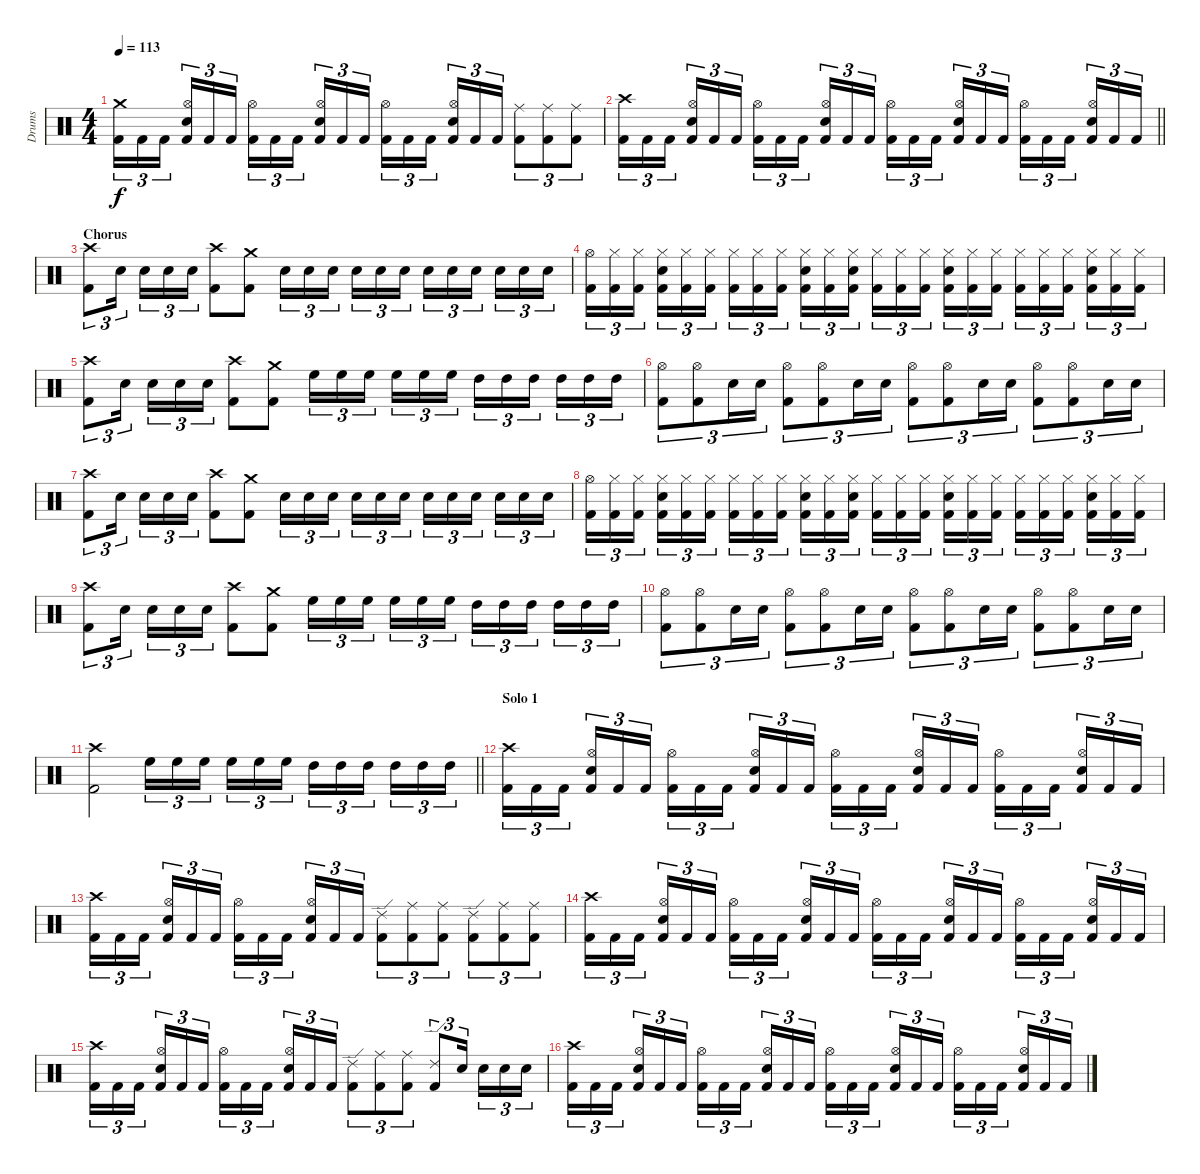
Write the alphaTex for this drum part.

\track ("Drums" "Drums") {instrument percussion}
\staff {score}
\articulation defaults
\ts (4 4)
\tempo 113
\clef neutral
\ks c
("Crash medium (hit)" "Kick (hit) 2").16{tu (3 2) dy f} "Kick (hit) 2".16{tu (3 2)} "Kick (hit) 2".16{tu (3 2) beam splitsecondary} ("Hi-Hat (open)" "Snare (hit) 2" "Kick (hit) 2").16{tu (3 2)} "Kick (hit) 2".16{tu (3 2)} "Kick (hit) 2".16{tu (3 2)} ("Hi-Hat (open)" "Kick (hit) 2").16{tu (3 2)} "Kick (hit) 2".16{tu (3 2)} "Kick (hit) 2".16{tu (3 2) beam splitsecondary} ("Hi-Hat (open)" "Snare (hit) 2" "Kick (hit) 2").16{tu (3 2)} "Kick (hit) 2".16{tu (3 2)} "Kick (hit) 2".16{tu (3 2)} ("Hi-Hat (open)" "Kick (hit) 2").16{tu (3 2)} "Kick (hit) 2".16{tu (3 2)} "Kick (hit) 2".16{tu (3 2) beam splitsecondary} ("Hi-Hat (open)" "Snare (hit) 2" "Kick (hit) 2").16{tu (3 2)} "Kick (hit) 2".16{tu (3 2)} "Kick (hit) 2".16{tu (3 2)} ("Ride (middle)" "Kick (hit) 2").8{tu (3 2)} ("Ride (middle)" "Kick (hit) 2").8{tu (3 2)} ("Ride (middle)" "Kick (hit) 2").8{tu (3 2)} |
\barLineRight lightlight
("Crash high (hit)" "Kick (hit) 2").16{tu (3 2)} "Kick (hit) 2".16{tu (3 2)} "Kick (hit) 2".16{tu (3 2) beam splitsecondary} ("Hi-Hat (open)" "Snare (hit) 2" "Kick (hit) 2").16{tu (3 2)} "Kick (hit) 2".16{tu (3 2)} "Kick (hit) 2".16{tu (3 2)} ("Hi-Hat (open)" "Kick (hit) 2").16{tu (3 2)} "Kick (hit) 2".16{tu (3 2)} "Kick (hit) 2".16{tu (3 2) beam splitsecondary} ("Hi-Hat (open)" "Snare (hit) 2" "Kick (hit) 2").16{tu (3 2)} "Kick (hit) 2".16{tu (3 2)} "Kick (hit) 2".16{tu (3 2)} ("Hi-Hat (open)" "Kick (hit) 2").16{tu (3 2)} "Kick (hit) 2".16{tu (3 2)} "Kick (hit) 2".16{tu (3 2) beam splitsecondary} ("Hi-Hat (open)" "Snare (hit) 2" "Kick (hit) 2").16{tu (3 2)} "Kick (hit) 2".16{tu (3 2)} "Kick (hit) 2".16{tu (3 2)} ("Hi-Hat (open)" "Kick (hit) 2").16{tu (3 2)} "Kick (hit) 2".16{tu (3 2)} "Kick (hit) 2".16{tu (3 2) beam splitsecondary} ("Hi-Hat (open)" "Snare (hit) 2" "Kick (hit) 2").16{tu (3 2)} "Kick (hit) 2".16{tu (3 2)} "Kick (hit) 2".16{tu (3 2)} |
\section ("" "Chorus")
("Crash high (hit)" "Kick (hit) 2").8{tu (3 2)} "Snare (hit) 2".16{tu (3 2) beam splitsecondary} "Snare (hit) 2".16{tu (3 2)} "Snare (hit) 2".16{tu (3 2)} "Snare (hit) 2".16{tu (3 2)} ("Crash high (hit)" "Kick (hit) 2").8 ("Crash medium (hit)" "Kick (hit) 2").8 "Snare (hit) 2".16{tu (3 2)} "Snare (hit) 2".16{tu (3 2)} "Snare (hit) 2".16{tu (3 2) beam splitsecondary} "Snare (hit) 2".16{tu (3 2)} "Snare (hit) 2".16{tu (3 2)} "Snare (hit) 2".16{tu (3 2)} "Snare (hit) 2".16{tu (3 2)} "Snare (hit) 2".16{tu (3 2)} "Snare (hit) 2".16{tu (3 2) beam splitsecondary} "Snare (hit) 2".16{tu (3 2)} "Snare (hit) 2".16{tu (3 2)} "Snare (hit) 2".16{tu (3 2)} |
("Hi-Hat (open)" "Kick (hit) 2").16{tu (3 2)} ("Hi-Hat (closed)" "Kick (hit) 2").16{tu (3 2)} ("Hi-Hat (closed)" "Kick (hit) 2").16{tu (3 2) beam splitsecondary} ("Snare (hit) 2" "Hi-Hat (closed)" "Kick (hit) 2").16{tu (3 2)} ("Hi-Hat (closed)" "Kick (hit) 2").16{tu (3 2)} ("Hi-Hat (closed)" "Kick (hit) 2").16{tu (3 2)} ("Hi-Hat (closed)" "Kick (hit) 2").16{tu (3 2)} ("Hi-Hat (closed)" "Kick (hit) 2").16{tu (3 2)} ("Hi-Hat (closed)" "Kick (hit) 2").16{tu (3 2) beam splitsecondary} ("Snare (hit) 2" "Hi-Hat (closed)" "Kick (hit) 2").16{tu (3 2)} ("Hi-Hat (closed)" "Kick (hit) 2").16{tu (3 2)} ("Snare (hit) 2" "Hi-Hat (closed)" "Kick (hit) 2").16{tu (3 2)} ("Hi-Hat (closed)" "Kick (hit) 2").16{tu (3 2)} ("Hi-Hat (closed)" "Kick (hit) 2").16{tu (3 2)} ("Hi-Hat (closed)" "Kick (hit) 2").16{tu (3 2) beam splitsecondary} ("Snare (hit) 2" "Hi-Hat (closed)" "Kick (hit) 2").16{tu (3 2)} ("Hi-Hat (closed)" "Kick (hit) 2").16{tu (3 2)} ("Hi-Hat (closed)" "Kick (hit) 2").16{tu (3 2)} ("Hi-Hat (closed)" "Kick (hit) 2").16{tu (3 2)} ("Hi-Hat (closed)" "Kick (hit) 2").16{tu (3 2)} ("Hi-Hat (closed)" "Kick (hit) 2").16{tu (3 2) beam splitsecondary} ("Snare (hit) 2" "Hi-Hat (closed)" "Kick (hit) 2").16{tu (3 2)} ("Hi-Hat (closed)" "Kick (hit) 2").16{tu (3 2)} ("Hi-Hat (closed)" "Kick (hit) 2").16{tu (3 2)} |
("Crash high (hit)" "Kick (hit) 2").8{tu (3 2)} "Snare (hit) 2".16{tu (3 2) beam splitsecondary} "Snare (hit) 2".16{tu (3 2)} "Snare (hit) 2".16{tu (3 2)} "Snare (hit) 2".16{tu (3 2)} ("Crash high (hit)" "Kick (hit) 2").8 ("Crash medium (hit)" "Kick (hit) 2").8 "High Floor Tom (hit)".16{tu (3 2)} "High Floor Tom (hit)".16{tu (3 2)} "High Floor Tom (hit)".16{tu (3 2) beam splitsecondary} "High Floor Tom (hit)".16{tu (3 2)} "High Floor Tom (hit)".16{tu (3 2)} "High Floor Tom (hit)".16{tu (3 2)} "High Tom (hit)".16{tu (3 2)} "High Tom (hit)".16{tu (3 2)} "High Tom (hit)".16{tu (3 2) beam splitsecondary} "High Tom (hit)".16{tu (3 2)} "High Tom (hit)".16{tu (3 2)} "High Tom (hit)".16{tu (3 2)} |
("Hi-Hat (open)" "Kick (hit) 2").8{tu (3 2)} ("Hi-Hat (open)" "Kick (hit) 2").8{tu (3 2)} "Snare (hit) 2".16{tu (3 2)} "Snare (hit) 2".16{tu (3 2)} ("Hi-Hat (open)" "Kick (hit) 2").8{tu (3 2)} ("Hi-Hat (open)" "Kick (hit) 2").8{tu (3 2)} "Snare (hit) 2".16{tu (3 2)} "Snare (hit) 2".16{tu (3 2)} ("Hi-Hat (open)" "Kick (hit) 2").8{tu (3 2)} ("Hi-Hat (open)" "Kick (hit) 2").8{tu (3 2)} "Snare (hit) 2".16{tu (3 2)} "Snare (hit) 2".16{tu (3 2)} ("Hi-Hat (open)" "Kick (hit) 2").8{tu (3 2)} ("Hi-Hat (open)" "Kick (hit) 2").8{tu (3 2)} "Snare (hit) 2".16{tu (3 2)} "Snare (hit) 2".16{tu (3 2)} |
("Crash high (hit)" "Kick (hit) 2").8{tu (3 2)} "Snare (hit) 2".16{tu (3 2) beam splitsecondary} "Snare (hit) 2".16{tu (3 2)} "Snare (hit) 2".16{tu (3 2)} "Snare (hit) 2".16{tu (3 2)} ("Crash high (hit)" "Kick (hit) 2").8 ("Crash medium (hit)" "Kick (hit) 2").8 "Snare (hit) 2".16{tu (3 2)} "Snare (hit) 2".16{tu (3 2)} "Snare (hit) 2".16{tu (3 2) beam splitsecondary} "Snare (hit) 2".16{tu (3 2)} "Snare (hit) 2".16{tu (3 2)} "Snare (hit) 2".16{tu (3 2)} "Snare (hit) 2".16{tu (3 2)} "Snare (hit) 2".16{tu (3 2)} "Snare (hit) 2".16{tu (3 2) beam splitsecondary} "Snare (hit) 2".16{tu (3 2)} "Snare (hit) 2".16{tu (3 2)} "Snare (hit) 2".16{tu (3 2)} |
("Hi-Hat (open)" "Kick (hit) 2").16{tu (3 2)} ("Hi-Hat (closed)" "Kick (hit) 2").16{tu (3 2)} ("Hi-Hat (closed)" "Kick (hit) 2").16{tu (3 2) beam splitsecondary} ("Snare (hit) 2" "Hi-Hat (closed)" "Kick (hit) 2").16{tu (3 2)} ("Hi-Hat (closed)" "Kick (hit) 2").16{tu (3 2)} ("Hi-Hat (closed)" "Kick (hit) 2").16{tu (3 2)} ("Hi-Hat (closed)" "Kick (hit) 2").16{tu (3 2)} ("Hi-Hat (closed)" "Kick (hit) 2").16{tu (3 2)} ("Hi-Hat (closed)" "Kick (hit) 2").16{tu (3 2) beam splitsecondary} ("Snare (hit) 2" "Hi-Hat (closed)" "Kick (hit) 2").16{tu (3 2)} ("Hi-Hat (closed)" "Kick (hit) 2").16{tu (3 2)} ("Snare (hit) 2" "Hi-Hat (closed)" "Kick (hit) 2").16{tu (3 2)} ("Hi-Hat (closed)" "Kick (hit) 2").16{tu (3 2)} ("Hi-Hat (closed)" "Kick (hit) 2").16{tu (3 2)} ("Hi-Hat (closed)" "Kick (hit) 2").16{tu (3 2) beam splitsecondary} ("Snare (hit) 2" "Hi-Hat (closed)" "Kick (hit) 2").16{tu (3 2)} ("Hi-Hat (closed)" "Kick (hit) 2").16{tu (3 2)} ("Hi-Hat (closed)" "Kick (hit) 2").16{tu (3 2)} ("Hi-Hat (closed)" "Kick (hit) 2").16{tu (3 2)} ("Hi-Hat (closed)" "Kick (hit) 2").16{tu (3 2)} ("Hi-Hat (closed)" "Kick (hit) 2").16{tu (3 2) beam splitsecondary} ("Snare (hit) 2" "Hi-Hat (closed)" "Kick (hit) 2").16{tu (3 2)} ("Hi-Hat (closed)" "Kick (hit) 2").16{tu (3 2)} ("Hi-Hat (closed)" "Kick (hit) 2").16{tu (3 2)} |
("Crash high (hit)" "Kick (hit) 2").8{tu (3 2)} "Snare (hit) 2".16{tu (3 2) beam splitsecondary} "Snare (hit) 2".16{tu (3 2)} "Snare (hit) 2".16{tu (3 2)} "Snare (hit) 2".16{tu (3 2)} ("Crash high (hit)" "Kick (hit) 2").8 ("Crash medium (hit)" "Kick (hit) 2").8 "High Floor Tom (hit)".16{tu (3 2)} "High Floor Tom (hit)".16{tu (3 2)} "High Floor Tom (hit)".16{tu (3 2) beam splitsecondary} "High Floor Tom (hit)".16{tu (3 2)} "High Floor Tom (hit)".16{tu (3 2)} "High Floor Tom (hit)".16{tu (3 2)} "High Tom (hit)".16{tu (3 2)} "High Tom (hit)".16{tu (3 2)} "High Tom (hit)".16{tu (3 2) beam splitsecondary} "High Tom (hit)".16{tu (3 2)} "High Tom (hit)".16{tu (3 2)} "High Tom (hit)".16{tu (3 2)} |
("Hi-Hat (open)" "Kick (hit) 2").8{tu (3 2)} ("Hi-Hat (open)" "Kick (hit) 2").8{tu (3 2)} "Snare (hit) 2".16{tu (3 2)} "Snare (hit) 2".16{tu (3 2)} ("Hi-Hat (open)" "Kick (hit) 2").8{tu (3 2)} ("Hi-Hat (open)" "Kick (hit) 2").8{tu (3 2)} "Snare (hit) 2".16{tu (3 2)} "Snare (hit) 2".16{tu (3 2)} ("Hi-Hat (open)" "Kick (hit) 2").8{tu (3 2)} ("Hi-Hat (open)" "Kick (hit) 2").8{tu (3 2)} "Snare (hit) 2".16{tu (3 2)} "Snare (hit) 2".16{tu (3 2)} ("Hi-Hat (open)" "Kick (hit) 2").8{tu (3 2)} ("Hi-Hat (open)" "Kick (hit) 2").8{tu (3 2)} "Snare (hit) 2".16{tu (3 2)} "Snare (hit) 2".16{tu (3 2)} |
\barLineRight lightlight
("Crash high (hit)" "Kick (hit) 2").2 "High Floor Tom (hit)".16{tu (3 2)} "High Floor Tom (hit)".16{tu (3 2)} "High Floor Tom (hit)".16{tu (3 2) beam splitsecondary} "High Floor Tom (hit)".16{tu (3 2)} "High Floor Tom (hit)".16{tu (3 2)} "High Floor Tom (hit)".16{tu (3 2)} "High Tom (hit)".16{tu (3 2)} "High Tom (hit)".16{tu (3 2)} "High Tom (hit)".16{tu (3 2) beam splitsecondary} "High Tom (hit)".16{tu (3 2)} "High Tom (hit)".16{tu (3 2)} "High Tom (hit)".16{tu (3 2)} |
\section ("" "Solo 1")
("Crash high (hit)" "Kick (hit) 2").16{tu (3 2)} "Kick (hit) 2".16{tu (3 2)} "Kick (hit) 2".16{tu (3 2) beam splitsecondary} ("Hi-Hat (open)" "Snare (hit) 2" "Kick (hit) 2").16{tu (3 2)} "Kick (hit) 2".16{tu (3 2)} "Kick (hit) 2".16{tu (3 2)} ("Hi-Hat (open)" "Kick (hit) 2").16{tu (3 2)} "Kick (hit) 2".16{tu (3 2)} "Kick (hit) 2".16{tu (3 2) beam splitsecondary} ("Hi-Hat (open)" "Snare (hit) 2" "Kick (hit) 2").16{tu (3 2)} "Kick (hit) 2".16{tu (3 2)} "Kick (hit) 2".16{tu (3 2)} ("Hi-Hat (open)" "Kick (hit) 2").16{tu (3 2)} "Kick (hit) 2".16{tu (3 2)} "Kick (hit) 2".16{tu (3 2) beam splitsecondary} ("Hi-Hat (open)" "Snare (hit) 2" "Kick (hit) 2").16{tu (3 2)} "Kick (hit) 2".16{tu (3 2)} "Kick (hit) 2".16{tu (3 2)} ("Hi-Hat (open)" "Kick (hit) 2").16{tu (3 2)} "Kick (hit) 2".16{tu (3 2)} "Kick (hit) 2".16{tu (3 2) beam splitsecondary} ("Hi-Hat (open)" "Snare (hit) 2" "Kick (hit) 2").16{tu (3 2)} "Kick (hit) 2".16{tu (3 2)} "Kick (hit) 2".16{tu (3 2)} |
("Crash high (hit)" "Kick (hit) 2").16{tu (3 2)} "Kick (hit) 2".16{tu (3 2)} "Kick (hit) 2".16{tu (3 2) beam splitsecondary} ("Hi-Hat (open)" "Snare (hit) 2" "Kick (hit) 2").16{tu (3 2)} "Kick (hit) 2".16{tu (3 2)} "Kick (hit) 2".16{tu (3 2)} ("Hi-Hat (open)" "Kick (hit) 2").16{tu (3 2)} "Kick (hit) 2".16{tu (3 2)} "Kick (hit) 2".16{tu (3 2) beam splitsecondary} ("Hi-Hat (open)" "Snare (hit) 2" "Kick (hit) 2").16{tu (3 2)} "Kick (hit) 2".16{tu (3 2)} "Kick (hit) 2".16{tu (3 2)} ("Ride (edge) 2" "Kick (hit) 2").8{tu (3 2)} ("Ride (middle)" "Kick (hit) 2").8{tu (3 2)} ("Ride (middle)" "Kick (hit) 2").8{tu (3 2)} ("Ride (edge) 2" "Kick (hit) 2").8{tu (3 2)} ("Ride (middle)" "Kick (hit) 2").8{tu (3 2)} ("Ride (middle)" "Kick (hit) 2").8{tu (3 2)} |
("Crash high (hit)" "Kick (hit) 2").16{tu (3 2)} "Kick (hit) 2".16{tu (3 2)} "Kick (hit) 2".16{tu (3 2) beam splitsecondary} ("Hi-Hat (open)" "Snare (hit) 2" "Kick (hit) 2").16{tu (3 2)} "Kick (hit) 2".16{tu (3 2)} "Kick (hit) 2".16{tu (3 2)} ("Hi-Hat (open)" "Kick (hit) 2").16{tu (3 2)} "Kick (hit) 2".16{tu (3 2)} "Kick (hit) 2".16{tu (3 2) beam splitsecondary} ("Hi-Hat (open)" "Snare (hit) 2" "Kick (hit) 2").16{tu (3 2)} "Kick (hit) 2".16{tu (3 2)} "Kick (hit) 2".16{tu (3 2)} ("Hi-Hat (open)" "Kick (hit) 2").16{tu (3 2)} "Kick (hit) 2".16{tu (3 2)} "Kick (hit) 2".16{tu (3 2) beam splitsecondary} ("Hi-Hat (open)" "Snare (hit) 2" "Kick (hit) 2").16{tu (3 2)} "Kick (hit) 2".16{tu (3 2)} "Kick (hit) 2".16{tu (3 2)} ("Hi-Hat (open)" "Kick (hit) 2").16{tu (3 2)} "Kick (hit) 2".16{tu (3 2)} "Kick (hit) 2".16{tu (3 2) beam splitsecondary} ("Hi-Hat (open)" "Snare (hit) 2" "Kick (hit) 2").16{tu (3 2)} "Kick (hit) 2".16{tu (3 2)} "Kick (hit) 2".16{tu (3 2)} |
("Crash high (hit)" "Kick (hit) 2").16{tu (3 2)} "Kick (hit) 2".16{tu (3 2)} "Kick (hit) 2".16{tu (3 2) beam splitsecondary} ("Hi-Hat (open)" "Snare (hit) 2" "Kick (hit) 2").16{tu (3 2)} "Kick (hit) 2".16{tu (3 2)} "Kick (hit) 2".16{tu (3 2)} ("Hi-Hat (open)" "Kick (hit) 2").16{tu (3 2)} "Kick (hit) 2".16{tu (3 2)} "Kick (hit) 2".16{tu (3 2) beam splitsecondary} ("Hi-Hat (open)" "Snare (hit) 2" "Kick (hit) 2").16{tu (3 2)} "Kick (hit) 2".16{tu (3 2)} "Kick (hit) 2".16{tu (3 2)} ("Ride (edge) 2" "Kick (hit) 2").8{tu (3 2)} ("Ride (middle)" "Kick (hit) 2").8{tu (3 2)} ("Ride (middle)" "Kick (hit) 2").8{tu (3 2)} ("Ride (edge) 2" "Kick (hit) 2").8{tu (3 2)} "Snare (hit) 2".16{tu (3 2) beam splitsecondary} "Snare (hit) 2".16{tu (3 2)} "Snare (hit) 2".16{tu (3 2)} "Snare (hit) 2".16{tu (3 2)} |
("Crash high (hit)" "Kick (hit) 2").16{tu (3 2)} "Kick (hit) 2".16{tu (3 2)} "Kick (hit) 2".16{tu (3 2) beam splitsecondary} ("Hi-Hat (open)" "Snare (hit) 2" "Kick (hit) 2").16{tu (3 2)} "Kick (hit) 2".16{tu (3 2)} "Kick (hit) 2".16{tu (3 2)} ("Hi-Hat (open)" "Kick (hit) 2").16{tu (3 2)} "Kick (hit) 2".16{tu (3 2)} "Kick (hit) 2".16{tu (3 2) beam splitsecondary} ("Hi-Hat (open)" "Snare (hit) 2" "Kick (hit) 2").16{tu (3 2)} "Kick (hit) 2".16{tu (3 2)} "Kick (hit) 2".16{tu (3 2)} ("Hi-Hat (open)" "Kick (hit) 2").16{tu (3 2)} "Kick (hit) 2".16{tu (3 2)} "Kick (hit) 2".16{tu (3 2) beam splitsecondary} ("Hi-Hat (open)" "Snare (hit) 2" "Kick (hit) 2").16{tu (3 2)} "Kick (hit) 2".16{tu (3 2)} "Kick (hit) 2".16{tu (3 2)} ("Hi-Hat (open)" "Kick (hit) 2").16{tu (3 2)} "Kick (hit) 2".16{tu (3 2)} "Kick (hit) 2".16{tu (3 2) beam splitsecondary} ("Hi-Hat (open)" "Snare (hit) 2" "Kick (hit) 2").16{tu (3 2)} "Kick (hit) 2".16{tu (3 2)} "Kick (hit) 2".16{tu (3 2)}
